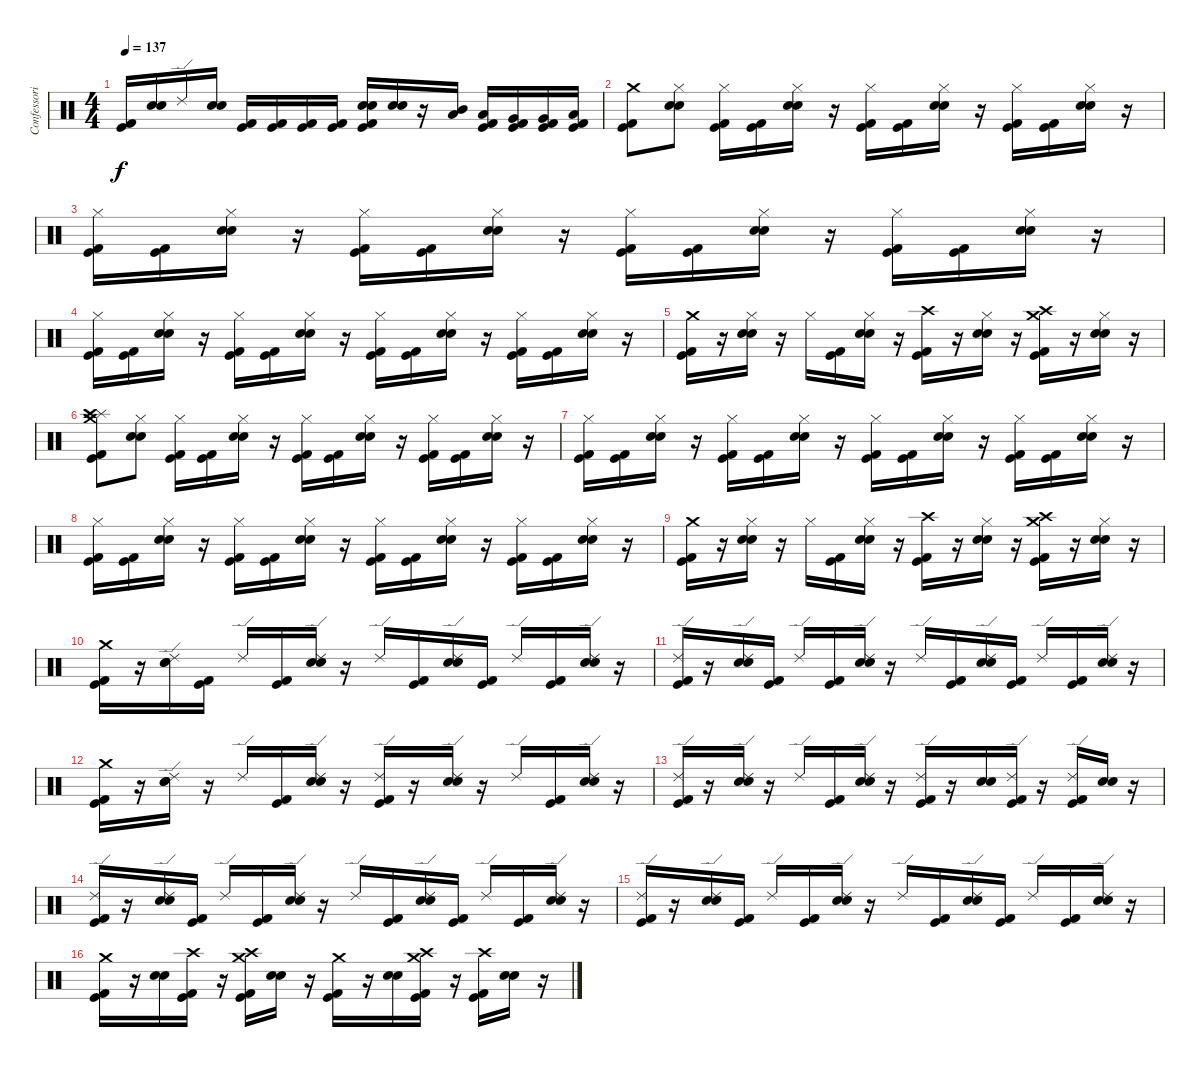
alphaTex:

\track ("Confessori" "Confessori") {instrument percussion}
\staff {score}
\articulation defaults
\ts (4 4)
\tempo 137
\clef neutral
\ks c
("Kick (hit) 2" "Kick (hit)").16{dy f} ("Electric Snare (hit)" "Snare (hit) 2").16 "Ride (edge) 2".16 ("Snare (hit) 2" "Electric Snare (hit)").16 ("Kick (hit) 2" "Kick (hit)").16 ("Kick (hit) 2" "Kick (hit)").16 ("Kick (hit) 2" "Kick (hit)").16 ("Kick (hit) 2" "Kick (hit)").16 ("Electric Snare (hit)" "Snare (hit) 2" "Kick (hit) 2" "Kick (hit)").16 ("Electric Snare (hit)" "Snare (hit) 2").16 r.16 ("Mid Tom (hit)" "Low Tom (hit)").16 ("Low Tom (hit)" "Kick (hit) 2" "Kick (hit)").16 ("Very Low Tom (hit)" "Kick (hit) 2" "Kick (hit)").16 ("Very Low Tom (hit)" "Kick (hit) 2" "Kick (hit)").16 ("Low Floor Tom (hit)" "Kick (hit) 2" "Kick (hit)").16 |
("Crash medium (hit)" "Kick (hit) 2" "Kick (hit)").8 ("Hi-Hat (closed)" "Electric Snare (hit)" "Snare (hit) 2").8 ("Hi-Hat (closed)" "Kick (hit) 2" "Kick (hit)").16 ("Kick (hit) 2" "Kick (hit)").16 ("Hi-Hat (closed)" "Electric Snare (hit)" "Snare (hit) 2").16 r.16 ("Hi-Hat (closed)" "Kick (hit) 2" "Kick (hit)").16 ("Kick (hit) 2" "Kick (hit)").16 ("Hi-Hat (closed)" "Electric Snare (hit)" "Snare (hit) 2").16 r.16 ("Hi-Hat (closed)" "Kick (hit) 2" "Kick (hit)").16 ("Kick (hit) 2" "Kick (hit)").16 ("Hi-Hat (closed)" "Electric Snare (hit)" "Snare (hit) 2").16 r.16 |
("Hi-Hat (closed)" "Kick (hit) 2" "Kick (hit)").16 ("Kick (hit) 2" "Kick (hit)").16 ("Hi-Hat (closed)" "Electric Snare (hit)" "Snare (hit) 2").16 r.16 ("Hi-Hat (closed)" "Kick (hit) 2" "Kick (hit)").16 ("Kick (hit) 2" "Kick (hit)").16 ("Hi-Hat (closed)" "Electric Snare (hit)" "Snare (hit) 2").16 r.16 ("Hi-Hat (closed)" "Kick (hit) 2" "Kick (hit)").16 ("Kick (hit) 2" "Kick (hit)").16 ("Hi-Hat (closed)" "Electric Snare (hit)" "Snare (hit) 2").16 r.16 ("Hi-Hat (closed)" "Kick (hit) 2" "Kick (hit)").16 ("Kick (hit) 2" "Kick (hit)").16 ("Hi-Hat (closed)" "Electric Snare (hit)" "Snare (hit) 2").16 r.16 |
("Hi-Hat (closed)" "Kick (hit) 2" "Kick (hit)").16 ("Kick (hit) 2" "Kick (hit)").16 ("Hi-Hat (closed)" "Electric Snare (hit)" "Snare (hit) 2").16 r.16 ("Hi-Hat (closed)" "Kick (hit) 2" "Kick (hit)").16 ("Kick (hit) 2" "Kick (hit)").16 ("Hi-Hat (closed)" "Electric Snare (hit)" "Snare (hit) 2").16 r.16 ("Hi-Hat (closed)" "Kick (hit) 2" "Kick (hit)").16 ("Kick (hit) 2" "Kick (hit)").16 ("Hi-Hat (closed)" "Electric Snare (hit)" "Snare (hit) 2").16 r.16 ("Hi-Hat (closed)" "Kick (hit) 2" "Kick (hit)").16 ("Kick (hit) 2" "Kick (hit)").16 ("Hi-Hat (closed)" "Electric Snare (hit)" "Snare (hit) 2").16 r.16 |
("Crash medium (hit)" "Kick (hit) 2" "Kick (hit)").16 r.16 ("Hi-Hat (closed)" "Electric Snare (hit)" "Snare (hit) 2").16 r.16 "Hi-Hat (closed)".16 ("Kick (hit) 2" "Kick (hit)").16 ("Hi-Hat (closed)" "Electric Snare (hit)" "Snare (hit) 2").16 r.16 ("Crash high (hit)" "Kick (hit) 2" "Kick (hit)").16 r.16 ("Hi-Hat (closed)" "Electric Snare (hit)" "Snare (hit) 2").16 r.16 ("Crash medium (hit)" "Crash high (hit)" "Kick (hit) 2" "Kick (hit)").16 r.16 ("Hi-Hat (closed)" "Electric Snare (hit)" "Snare (hit) 2").16 r.16 |
("Splash (hit)" "Crash high (hit)" "Crash medium (hit)" "Kick (hit) 2" "Kick (hit)").8 ("Hi-Hat (closed)" "Electric Snare (hit)" "Snare (hit) 2").8 ("Hi-Hat (closed)" "Kick (hit) 2" "Kick (hit)").16 ("Kick (hit) 2" "Kick (hit)").16 ("Hi-Hat (closed)" "Electric Snare (hit)" "Snare (hit) 2").16 r.16 ("Hi-Hat (closed)" "Kick (hit) 2" "Kick (hit)").16 ("Kick (hit) 2" "Kick (hit)").16 ("Hi-Hat (closed)" "Electric Snare (hit)" "Snare (hit) 2").16 r.16 ("Hi-Hat (closed)" "Kick (hit) 2" "Kick (hit)").16 ("Kick (hit) 2" "Kick (hit)").16 ("Hi-Hat (closed)" "Electric Snare (hit)" "Snare (hit) 2").16 r.16 |
("Hi-Hat (closed)" "Kick (hit) 2" "Kick (hit)").16 ("Kick (hit) 2" "Kick (hit)").16 ("Hi-Hat (closed)" "Electric Snare (hit)" "Snare (hit) 2").16 r.16 ("Hi-Hat (closed)" "Kick (hit) 2" "Kick (hit)").16 ("Kick (hit) 2" "Kick (hit)").16 ("Hi-Hat (closed)" "Electric Snare (hit)" "Snare (hit) 2").16 r.16 ("Hi-Hat (closed)" "Kick (hit) 2" "Kick (hit)").16 ("Kick (hit) 2" "Kick (hit)").16 ("Hi-Hat (closed)" "Electric Snare (hit)" "Snare (hit) 2").16 r.16 ("Hi-Hat (closed)" "Kick (hit) 2" "Kick (hit)").16 ("Kick (hit) 2" "Kick (hit)").16 ("Hi-Hat (closed)" "Electric Snare (hit)" "Snare (hit) 2").16 r.16 |
("Hi-Hat (closed)" "Kick (hit) 2" "Kick (hit)").16 ("Kick (hit) 2" "Kick (hit)").16 ("Hi-Hat (closed)" "Electric Snare (hit)" "Snare (hit) 2").16 r.16 ("Hi-Hat (closed)" "Kick (hit) 2" "Kick (hit)").16 ("Kick (hit) 2" "Kick (hit)").16 ("Hi-Hat (closed)" "Electric Snare (hit)" "Snare (hit) 2").16 r.16 ("Hi-Hat (closed)" "Kick (hit) 2" "Kick (hit)").16 ("Kick (hit) 2" "Kick (hit)").16 ("Hi-Hat (closed)" "Electric Snare (hit)" "Snare (hit) 2").16 r.16 ("Hi-Hat (closed)" "Kick (hit) 2" "Kick (hit)").16 ("Kick (hit) 2" "Kick (hit)").16 ("Hi-Hat (closed)" "Electric Snare (hit)" "Snare (hit) 2").16 r.16 |
("Crash medium (hit)" "Kick (hit) 2" "Kick (hit)").16 r.16 ("Hi-Hat (closed)" "Electric Snare (hit)" "Snare (hit) 2").16 r.16 "Hi-Hat (closed)".16 ("Kick (hit) 2" "Kick (hit)").16 ("Hi-Hat (closed)" "Electric Snare (hit)" "Snare (hit) 2").16 r.16 ("Crash high (hit)" "Kick (hit) 2" "Kick (hit)").16 r.16 ("Hi-Hat (closed)" "Electric Snare (hit)" "Snare (hit) 2").16 r.16 ("Crash high (hit)" "Kick (hit) 2" "Kick (hit)" "Crash medium (hit)").16 r.16 ("Hi-Hat (closed)" "Electric Snare (hit)" "Snare (hit) 2").16 r.16 |
("Crash medium (hit)" "Kick (hit) 2" "Kick (hit)").16 r.16 ("Ride (edge) 2" "Electric Snare (hit)" "Snare (hit) 2").16 ("Kick (hit) 2" "Kick (hit)").16 "Ride (edge) 2".16 ("Kick (hit) 2" "Kick (hit)").16 ("Ride (edge) 2" "Electric Snare (hit)" "Snare (hit) 2").16 r.16 "Ride (edge) 2".16 ("Kick (hit) 2" "Kick (hit)").16 ("Snare (hit) 2" "Electric Snare (hit)" "Ride (edge) 2").16 ("Kick (hit) 2" "Kick (hit)").16 "Ride (edge) 2".16 ("Kick (hit) 2" "Kick (hit)").16 ("Ride (edge) 2" "Electric Snare (hit)" "Snare (hit) 2").16 r.16 |
("Ride (edge) 2" "Kick (hit) 2" "Kick (hit)").16 r.16 ("Electric Snare (hit)" "Snare (hit) 2" "Ride (edge) 2").16 ("Kick (hit) 2" "Kick (hit)").16 "Ride (edge) 2".16 ("Kick (hit) 2" "Kick (hit)").16 ("Electric Snare (hit)" "Snare (hit) 2" "Ride (edge) 2").16 r.16 "Ride (edge) 2".16 ("Kick (hit) 2" "Kick (hit)").16 ("Snare (hit) 2" "Electric Snare (hit)" "Ride (edge) 2").16 ("Kick (hit)" "Kick (hit) 2").16 "Ride (edge) 2".16 ("Kick (hit) 2" "Kick (hit)").16 ("Electric Snare (hit)" "Snare (hit) 2" "Ride (edge) 2").16 r.16 |
("Crash medium (hit)" "Kick (hit) 2" "Kick (hit)").16 r.16 ("Electric Snare (hit)" "Snare (hit) 2" "Ride (edge) 2").16 r.16 "Ride (edge) 2".16 ("Kick (hit) 2" "Kick (hit)").16 ("Electric Snare (hit)" "Snare (hit) 2" "Ride (edge) 2").16 r.16 ("Ride (edge) 2" "Kick (hit) 2" "Kick (hit)").16 r.16 ("Electric Snare (hit)" "Snare (hit) 2" "Ride (edge) 2").16 r.16 "Ride (edge) 2".16 ("Kick (hit) 2" "Kick (hit)").16 ("Electric Snare (hit)" "Snare (hit) 2" "Ride (edge) 2").16 r.16 |
("Kick (hit) 2" "Ride (edge) 2" "Kick (hit)").16 r.16 ("Electric Snare (hit)" "Snare (hit) 2" "Ride (edge) 2").16 r.16 "Ride (edge) 2".16 ("Kick (hit) 2" "Kick (hit)").16 ("Electric Snare (hit)" "Snare (hit) 2" "Ride (edge) 2").16 r.16 ("Ride (edge) 2" "Kick (hit) 2" "Kick (hit)").16 r.16 ("Electric Snare (hit)" "Snare (hit) 2").16 ("Ride (edge) 2" "Kick (hit) 2" "Kick (hit)").16 r.16 ("Ride (edge) 2" "Kick (hit) 2" "Kick (hit)").16 ("Electric Snare (hit)" "Snare (hit) 2").16 r.16 |
("Ride (edge) 2" "Kick (hit) 2" "Kick (hit)").16 r.16 ("Electric Snare (hit)" "Snare (hit) 2" "Ride (edge) 2").16 ("Kick (hit) 2" "Kick (hit)").16 "Ride (edge) 2".16 ("Kick (hit) 2" "Kick (hit)").16 ("Electric Snare (hit)" "Snare (hit) 2" "Ride (edge) 2").16 r.16 "Ride (edge) 2".16 ("Kick (hit) 2" "Kick (hit)").16 ("Electric Snare (hit)" "Snare (hit) 2" "Ride (edge) 2").16 ("Kick (hit) 2" "Kick (hit)").16 "Ride (edge) 2".16 ("Kick (hit) 2" "Kick (hit)").16 ("Electric Snare (hit)" "Snare (hit) 2" "Ride (edge) 2").16 r.16 |
("Ride (edge) 2" "Kick (hit) 2" "Kick (hit)").16 r.16 ("Electric Snare (hit)" "Snare (hit) 2" "Ride (edge) 2").16 ("Kick (hit) 2" "Kick (hit)").16 "Ride (edge) 2".16 ("Kick (hit) 2" "Kick (hit)").16 ("Electric Snare (hit)" "Snare (hit) 2" "Ride (edge) 2").16 r.16 "Ride (edge) 2".16 ("Kick (hit) 2" "Kick (hit)").16 ("Electric Snare (hit)" "Snare (hit) 2" "Ride (edge) 2").16 ("Kick (hit) 2" "Kick (hit)").16 "Ride (edge) 2".16 ("Kick (hit) 2" "Kick (hit)").16 ("Electric Snare (hit)" "Snare (hit) 2" "Ride (edge) 2").16 r.16 |
("Crash medium (hit)" "Kick (hit) 2" "Kick (hit)").16 r.16 ("Electric Snare (hit)" "Snare (hit) 2").16 ("Crash high (hit)" "Kick (hit)" "Kick (hit) 2").16 r.16 ("Crash high (hit)" "Crash medium (hit)" "Kick (hit) 2" "Kick (hit)").16 ("Electric Snare (hit)" "Snare (hit) 2").16 r.16 ("Crash medium (hit)" "Kick (hit) 2" "Kick (hit)").16 r.16 ("Electric Snare (hit)" "Snare (hit) 2").16 ("Crash medium (hit)" "Crash high (hit)" "Kick (hit) 2" "Kick (hit)").16 r.16 ("Crash high (hit)" "Kick (hit) 2" "Kick (hit)").16 ("Electric Snare (hit)" "Snare (hit) 2").16 r.16
